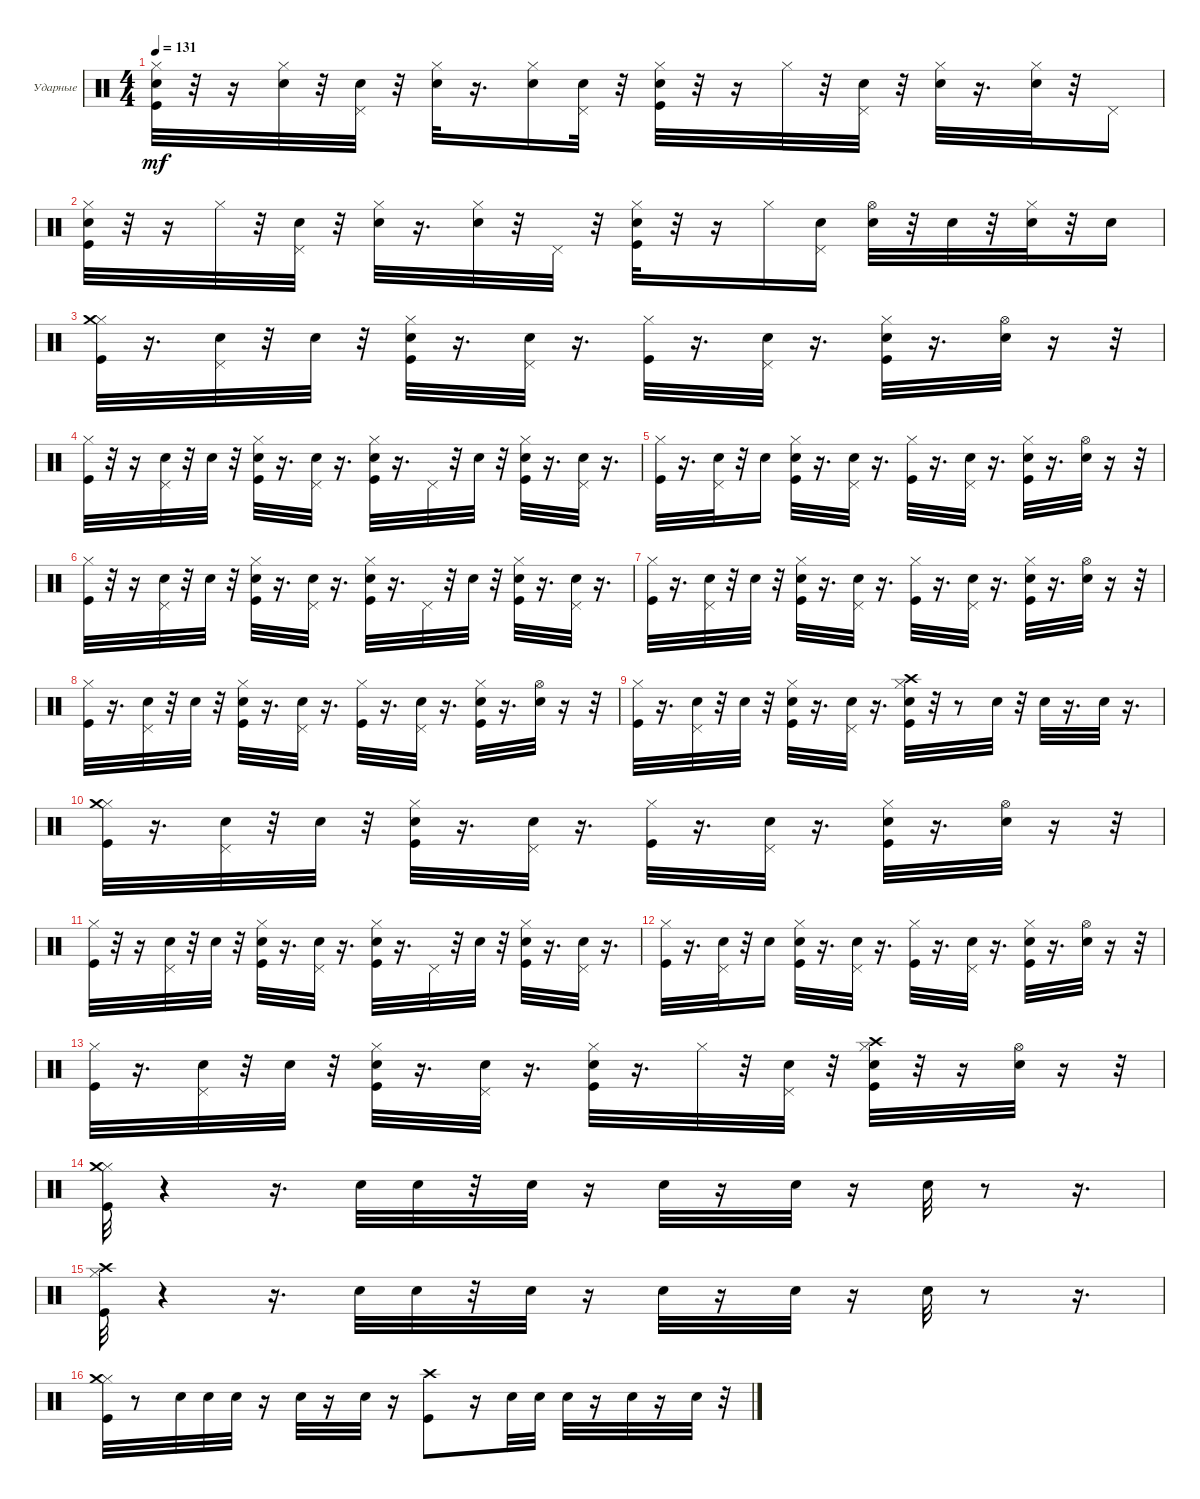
\bracketExtendMode groupsimilarinstruments
\firstSystemTrackNameOrientation horizontal
\otherSystemsTrackNameOrientation horizontal
\track ("Ударные" "Ударные") {instrument percussion}
\staff {score}
\articulation defaults
\ts (4 4)
\tempo 131
\clef neutral
\ks c
("Snare (hit) 2" "Kick (hit)" "Hi-Hat (closed)").32{dy mf} r.32 r.16 ("Snare (hit) 2" "Hi-Hat (closed)").32 r.32 ("Snare (hit) 2" "Pedal Hi-Hat (hit)").32 r.32 ("Snare (hit) 2" "Hi-Hat (closed)").32 r.16{d} ("Snare (hit) 2" "Hi-Hat (closed)").16 ("Snare (hit) 2" "Pedal Hi-Hat (hit)").32 r.32 ("Snare (hit) 2" "Hi-Hat (closed)" "Kick (hit)").32 r.32 r.16 "Hi-Hat (closed)".32 r.32 ("Snare (hit) 2" "Pedal Hi-Hat (hit)").32 r.32 ("Snare (hit) 2" "Hi-Hat (closed)").32 r.16{d} ("Snare (hit) 2" "Hi-Hat (closed)").32 r.32 "Pedal Hi-Hat (hit)".16 |
("Snare (hit) 2" "Hi-Hat (closed)" "Kick (hit)").32 r.32 r.16 "Hi-Hat (closed)".32 r.32 ("Snare (hit) 2" "Pedal Hi-Hat (hit)").32 r.32 ("Snare (hit) 2" "Hi-Hat (closed)").32 r.16{d} ("Snare (hit) 2" "Hi-Hat (closed)").32 r.32 "Pedal Hi-Hat (hit)".32 r.32 ("Snare (hit) 2" "Hi-Hat (closed)" "Kick (hit)").32 r.32 r.16 "Hi-Hat (closed)".16 ("Snare (hit) 2" "Pedal Hi-Hat (hit)").16 ("Snare (hit) 2" "Hi-Hat (open)").32 r.32 "Snare (hit) 2".32 r.32 ("Snare (hit) 2" "Hi-Hat (closed)").32 r.32 "Snare (hit) 2".16 |
("Kick (hit)" "Hi-Hat (closed)" "Crash medium (hit)").32 r.16{d} ("Snare (hit) 2" "Pedal Hi-Hat (hit)").32 r.32 "Snare (hit) 2".32 r.32 ("Hi-Hat (closed)" "Snare (hit) 2" "Kick (hit)").32 r.16{d} ("Snare (hit) 2" "Pedal Hi-Hat (hit)").32 r.16{d} ("Hi-Hat (closed)" "Kick (hit)").32 r.16{d} ("Snare (hit) 2" "Pedal Hi-Hat (hit)").32 r.16{d} ("Hi-Hat (closed)" "Snare (hit) 2" "Kick (hit)").32 r.16{d} ("Snare (hit) 2" "Hi-Hat (open)").32 r.16 r.32 |
("Hi-Hat (closed)" "Kick (hit)").32 r.32 r.16 ("Snare (hit) 2" "Pedal Hi-Hat (hit)").32 r.32 "Snare (hit) 2".32 r.32 ("Snare (hit) 2" "Hi-Hat (closed)" "Kick (hit)").32 r.16{d} ("Snare (hit) 2" "Pedal Hi-Hat (hit)").32 r.16{d} ("Snare (hit) 2" "Hi-Hat (closed)" "Kick (hit)").32 r.16{d} "Pedal Hi-Hat (hit)".32 r.32 "Snare (hit) 2".32 r.32 ("Snare (hit) 2" "Hi-Hat (closed)" "Kick (hit)").32 r.16{d} ("Snare (hit) 2" "Pedal Hi-Hat (hit)").32 r.16{d} |
("Hi-Hat (closed)" "Kick (hit)").32 r.16{d} ("Snare (hit) 2" "Pedal Hi-Hat (hit)").32 r.32 "Snare (hit) 2".16 ("Snare (hit) 2" "Hi-Hat (closed)" "Kick (hit)").32 r.16{d} ("Snare (hit) 2" "Pedal Hi-Hat (hit)").32 r.16{d} ("Kick (hit)" "Hi-Hat (closed)").32 r.16{d} ("Snare (hit) 2" "Pedal Hi-Hat (hit)").32 r.16{d} ("Hi-Hat (closed)" "Snare (hit) 2" "Kick (hit)").32 r.16{d} ("Snare (hit) 2" "Hi-Hat (open)").32 r.16 r.32 |
("Hi-Hat (closed)" "Kick (hit)").32 r.32 r.16 ("Snare (hit) 2" "Pedal Hi-Hat (hit)").32 r.32 "Snare (hit) 2".32 r.32 ("Snare (hit) 2" "Hi-Hat (closed)" "Kick (hit)").32 r.16{d} ("Snare (hit) 2" "Pedal Hi-Hat (hit)").32 r.16{d} ("Snare (hit) 2" "Hi-Hat (closed)" "Kick (hit)").32 r.16{d} "Pedal Hi-Hat (hit)".32 r.32 "Snare (hit) 2".32 r.32 ("Hi-Hat (closed)" "Snare (hit) 2" "Kick (hit)").32 r.16{d} ("Snare (hit) 2" "Pedal Hi-Hat (hit)").32 r.16{d} |
("Hi-Hat (closed)" "Kick (hit)").32 r.16{d} ("Snare (hit) 2" "Pedal Hi-Hat (hit)").32 r.32 "Snare (hit) 2".32 r.32 ("Snare (hit) 2" "Hi-Hat (closed)" "Kick (hit)").32 r.16{d} ("Snare (hit) 2" "Pedal Hi-Hat (hit)").32 r.16{d} ("Kick (hit)" "Hi-Hat (closed)").32 r.16{d} ("Snare (hit) 2" "Pedal Hi-Hat (hit)").32 r.16{d} ("Hi-Hat (closed)" "Snare (hit) 2" "Kick (hit)").32 r.16{d} ("Snare (hit) 2" "Hi-Hat (open)").32 r.16 r.32 |
("Hi-Hat (closed)" "Kick (hit)").32 r.16{d} ("Snare (hit) 2" "Pedal Hi-Hat (hit)").32 r.32 "Snare (hit) 2".32 r.32 ("Snare (hit) 2" "Hi-Hat (closed)" "Kick (hit)").32 r.16{d} ("Snare (hit) 2" "Pedal Hi-Hat (hit)").32 r.16{d} ("Hi-Hat (closed)" "Kick (hit)").32 r.16{d} ("Snare (hit) 2" "Pedal Hi-Hat (hit)").32 r.16{d} ("Hi-Hat (closed)" "Snare (hit) 2" "Kick (hit)").32 r.16{d} ("Snare (hit) 2" "Hi-Hat (open)").32 r.16 r.32 |
("Hi-Hat (closed)" "Kick (hit)").32 r.16{d} ("Snare (hit) 2" "Pedal Hi-Hat (hit)").32 r.32 "Snare (hit) 2".32 r.32 ("Snare (hit) 2" "Hi-Hat (closed)" "Kick (hit)").32 r.16{d} ("Snare (hit) 2" "Pedal Hi-Hat (hit)").32 r.16{d} ("Snare (hit) 2" "Crash high (hit)" "Hi-Hat (closed)" "Kick (hit)").32 r.32 r.8 "Snare (hit) 2".32 r.32 "Snare (hit) 2".32 r.16{d} "Snare (hit) 2".32 r.16{d} |
("Kick (hit)" "Hi-Hat (closed)" "Crash medium (hit)").32 r.16{d} ("Snare (hit) 2" "Pedal Hi-Hat (hit)").32 r.32 "Snare (hit) 2".32 r.32 ("Hi-Hat (closed)" "Snare (hit) 2" "Kick (hit)").32 r.16{d} ("Snare (hit) 2" "Pedal Hi-Hat (hit)").32 r.16{d} ("Hi-Hat (closed)" "Kick (hit)").32 r.16{d} ("Snare (hit) 2" "Pedal Hi-Hat (hit)").32 r.16{d} ("Hi-Hat (closed)" "Snare (hit) 2" "Kick (hit)").32 r.16{d} ("Snare (hit) 2" "Hi-Hat (open)").32 r.16 r.32 |
("Hi-Hat (closed)" "Kick (hit)").32 r.32 r.16 ("Snare (hit) 2" "Pedal Hi-Hat (hit)").32 r.32 "Snare (hit) 2".32 r.32 ("Snare (hit) 2" "Hi-Hat (closed)" "Kick (hit)").32 r.16{d} ("Snare (hit) 2" "Pedal Hi-Hat (hit)").32 r.16{d} ("Snare (hit) 2" "Hi-Hat (closed)" "Kick (hit)").32 r.16{d} "Pedal Hi-Hat (hit)".32 r.32 "Snare (hit) 2".32 r.32 ("Snare (hit) 2" "Hi-Hat (closed)" "Kick (hit)").32 r.16{d} ("Snare (hit) 2" "Pedal Hi-Hat (hit)").32 r.16{d} |
("Hi-Hat (closed)" "Kick (hit)").32 r.16{d} ("Snare (hit) 2" "Pedal Hi-Hat (hit)").32 r.32 "Snare (hit) 2".16 ("Snare (hit) 2" "Hi-Hat (closed)" "Kick (hit)").32 r.16{d} ("Snare (hit) 2" "Pedal Hi-Hat (hit)").32 r.16{d} ("Kick (hit)" "Hi-Hat (closed)").32 r.16{d} ("Snare (hit) 2" "Pedal Hi-Hat (hit)").32 r.16{d} ("Hi-Hat (closed)" "Snare (hit) 2" "Kick (hit)").32 r.16{d} ("Snare (hit) 2" "Hi-Hat (open)").32 r.16 r.32 |
("Hi-Hat (closed)" "Kick (hit)").32 r.16{d} ("Snare (hit) 2" "Pedal Hi-Hat (hit)").32 r.32 "Snare (hit) 2".32 r.32 ("Snare (hit) 2" "Hi-Hat (closed)" "Kick (hit)").32 r.16{d} ("Snare (hit) 2" "Pedal Hi-Hat (hit)").32 r.16{d} ("Snare (hit) 2" "Hi-Hat (closed)" "Kick (hit)").32 r.16{d} "Hi-Hat (closed)".32 r.32 ("Snare (hit) 2" "Pedal Hi-Hat (hit)").32 r.32 ("Crash high (hit)" "Hi-Hat (closed)" "Snare (hit) 2" "Kick (hit)").32 r.32 r.16 ("Snare (hit) 2" "Hi-Hat (open)").32 r.16 r.32 |
("Kick (hit)" "Hi-Hat (closed)" "Crash medium (hit)").32 r.4 r.16{d} "Snare (hit) 2".32 "Snare (hit) 2".32 r.32 "Snare (hit) 2".32 r.16 "Snare (hit) 2".32 r.16 "Snare (hit) 2".32 r.16 "Snare (hit) 2".32 r.8 r.16{d} |
("Kick (hit)" "Hi-Hat (closed)" "Crash high (hit)").32 r.4 r.16{d} "Snare (hit) 2".32 "Snare (hit) 2".32 r.32 "Snare (hit) 2".32 r.16 "Snare (hit) 2".32 r.16 "Snare (hit) 2".32 r.16 "Snare (hit) 2".32 r.8 r.16{d} |
("Kick (hit)" "Hi-Hat (closed)" "Crash medium (hit)").32 r.8 "Snare (hit) 2".32 "Snare (hit) 2".32 "Snare (hit) 2".32 r.16 "Snare (hit) 2".32 r.16 "Snare (hit) 2".32 r.16 ("Crash high (hit)" "Kick (hit)").8 r.16 "Snare (hit) 2".32 "Snare (hit) 2".32 "Snare (hit) 2".32 r.16 "Snare (hit) 2".32 r.16 "Snare (hit) 2".32 r.32
